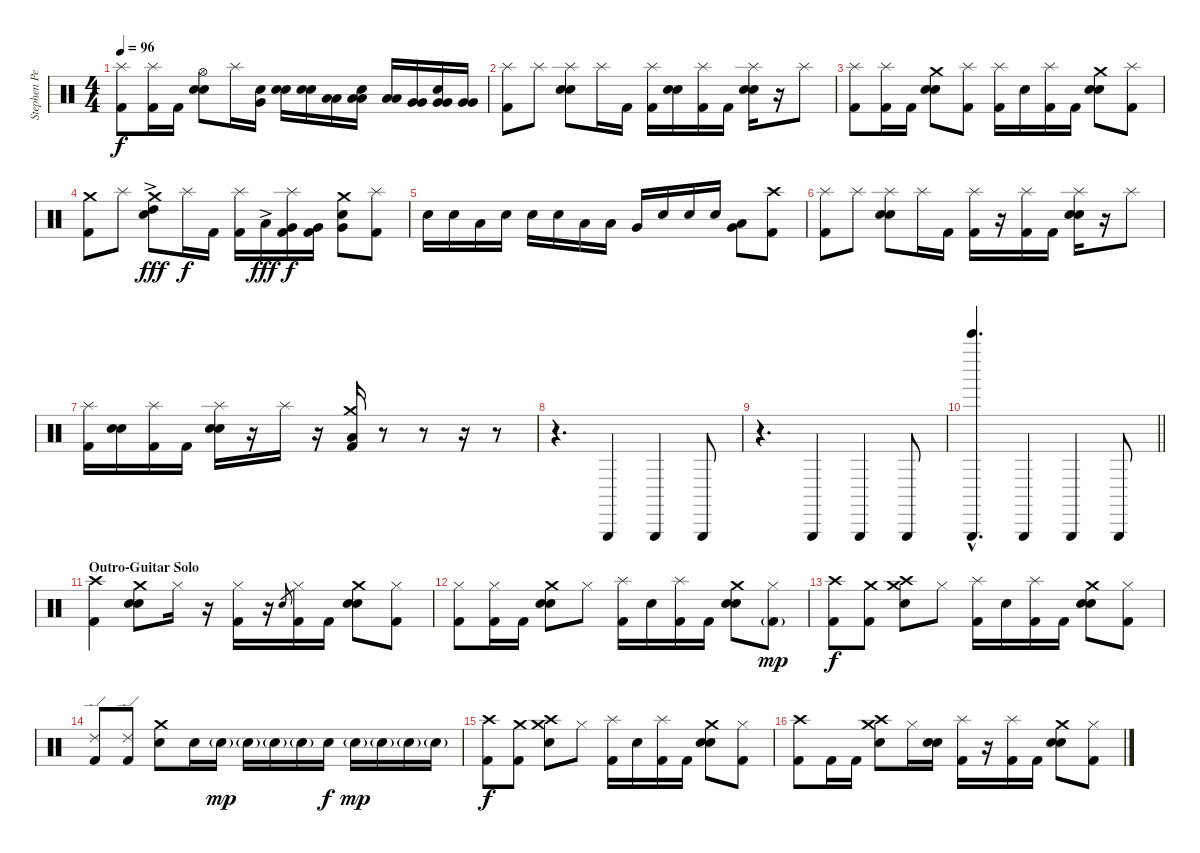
\track ("Stephen Perkins Drums" "Stephen Pe") {instrument percussion}
\staff {score}
\articulation defaults
\ts (4 4)
\tempo 96
\clef neutral
\ks c
("Splash (hit)" "Kick (hit) 2").8{dy f} ("Splash (hit)" "Kick (hit) 2").16 "Kick (hit) 2".16 ("Hi-Hat (open)" "Electric Snare (hit)" "Snare (hit) 2").8 "Splash (hit)".16 ("Electric Snare (hit)" "Very Low Tom (hit)").16 ("Snare (hit) 2" "Electric Snare (hit)").16 ("Snare (hit) 2" "Electric Snare (hit)").16 ("Low Tom (hit)" "Low Tom (hit)").16 ("Electric Snare (hit)" "Low Tom (hit)" "Low Tom (hit)").16 ("Low Tom (hit)" "Low Tom (hit)").16 ("Very Low Tom (hit)" "Very Low Tom (hit)").16 ("Electric Snare (hit)" "Very Low Tom (hit)" "Very Low Tom (hit)").16 ("Very Low Tom (hit)" "Very Low Tom (hit)").16 |
("Splash (hit)" "Kick (hit) 2").8 "Splash (hit)".8 ("Splash (hit)" "Snare (hit) 2" "Electric Snare (hit)").8 "Splash (hit)".16 "Kick (hit) 2".16 ("Splash (hit)" "Kick (hit) 2").16 ("Snare (hit) 2" "Electric Snare (hit)").16 ("Splash (hit)" "Kick (hit) 2").16 "Kick (hit) 2".16 ("Splash (hit)" "Snare (hit) 2" "Electric Snare (hit)").16 r.16 "Splash (hit)".8 |
("Splash (hit)" "Kick (hit) 2").8 ("Splash (hit)" "Kick (hit) 2").16 "Kick (hit) 2".16 ("Crash medium (hit)" "Snare (hit) 2" "Electric Snare (hit)").8 ("Splash (hit)" "Kick (hit) 2").8 ("Splash (hit)" "Kick (hit) 2").16 "Electric Snare (hit)".16 ("Splash (hit)" "Kick (hit) 2").16 "Kick (hit) 2".16 ("Crash medium (hit)" "Snare (hit) 2" "Electric Snare (hit)").8 ("Splash (hit)" "Kick (hit) 2").8 |
("Crash medium (hit)" "Kick (hit) 2").8 "Splash (hit)".8 ("Crash medium (hit)" "Electric Snare (hit)" "High Tom (hit)"{ac}).8{dy fff} "Splash (hit)".16{dy f} "Kick (hit) 2".16 ("Splash (hit)" "Kick (hit) 2").16 "Low Tom (hit)"{ac}.16{dy fff} ("Splash (hit)" "Very Low Tom (hit)" "Kick (hit) 2").16{dy f} ("Very Low Tom (hit)" "Kick (hit) 2").16 ("Crash medium (hit)" "Electric Snare (hit)" "Very Low Tom (hit)").8 ("Splash (hit)" "Kick (hit) 2").8 |
"Electric Snare (hit)".16 "Electric Snare (hit)".16 "Low Tom (hit)".16 "Electric Snare (hit)".16 "Electric Snare (hit)".16 "Electric Snare (hit)".16 "Low Tom (hit)".16 "Low Tom (hit)".16 "Very Low Tom (hit)".16 "Electric Snare (hit)".16 "Electric Snare (hit)".16 "Electric Snare (hit)".16 ("Very Low Tom (hit)" "Low Floor Tom (hit)").8 ("Crash high (hit)" "Kick (hit) 2").8 |
("Splash (hit)" "Kick (hit) 2").8 "Splash (hit)".8 ("Splash (hit)" "Snare (hit) 2" "Electric Snare (hit)").8 "Splash (hit)".16 "Kick (hit) 2".16 ("Splash (hit)" "Kick (hit) 2").16 r.16 ("Splash (hit)" "Kick (hit) 2").16 "Kick (hit) 2".16 ("Splash (hit)" "Snare (hit) 2" "Electric Snare (hit)").16 r.16 "Splash (hit)".8 |
("Splash (hit)" "Kick (hit) 2").16 ("Electric Snare (hit)" "Snare (hit) 2").16 ("Splash (hit)" "Kick (hit) 2").16 "Kick (hit) 2".16 ("Splash (hit)" "Electric Snare (hit)" "Snare (hit) 2").16 r.16 "Splash (hit)".16 r.16 ("Crash medium (hit)" "Low Floor Tom (hit)" "Kick (hit) 2").16 r.8 r.8 r.16 r.8 |
r.4{d} "Triangle (hit)".4 "Triangle (hit)".4 "Triangle (hit)".8 |
r.4{d} "Triangle (hit)".4 "Triangle (hit)".4 "Triangle (hit)".8 |
\barLineRight lightlight
("Bell Tree (hit)"{hac} "Triangle (hit)"{hac}).4{d} "Triangle (hit)".4 "Triangle (hit)".4 "Triangle (hit)".8 |
\section ("" "Outro-Guitar Solo")
("Crash high (hit)" "Kick (hit) 2").4 ("Crash medium (hit)" "Electric Snare (hit)" "Snare (hit) 2").8 "Hi-Hat (closed)".16 r.16 ("Hi-Hat (closed)" "Kick (hit) 2").16 r.16 "Electric Snare (hit)".8{gr} ("Hi-Hat (closed)" "Kick (hit) 2").16 "Kick (hit) 2".16 ("Crash medium (hit)" "Electric Snare (hit)" "Snare (hit) 2").8 ("Hi-Hat (closed)" "Kick (hit) 2").8 |
("Hi-Hat (closed)" "Kick (hit) 2").8 ("Hi-Hat (closed)" "Kick (hit) 2").16 "Kick (hit) 2".16 ("Crash medium (hit)" "Snare (hit) 2" "Electric Snare (hit)").8 "Hi-Hat (closed)".8 ("Splash (hit)" "Kick (hit) 2").16 "Electric Snare (hit)".16 ("Splash (hit)" "Kick (hit) 2").16 "Kick (hit) 2".16 ("Crash medium (hit)" "Electric Snare (hit)" "Snare (hit) 2").8 ("Hi-Hat (closed)" "Kick (hit) 2"{g}).8{dy mp} |
("Crash high (hit)" "Kick (hit) 2").8{dy f} ("Crash medium (hit)" "Kick (hit) 2").8 ("Crash high (hit)" "Crash medium (hit)" "Electric Snare (hit)").8 "Hi-Hat (closed)".8 ("Splash (hit)" "Kick (hit) 2").16 "Electric Snare (hit)".16 ("Splash (hit)" "Kick (hit) 2").16 "Kick (hit) 2".16 ("Crash medium (hit)" "Snare (hit) 2" "Electric Snare (hit)").8 ("Hi-Hat (closed)" "Kick (hit) 2").8 |
("Ride (edge) 2" "Kick (hit) 2").8 ("Ride (edge) 2" "Kick (hit) 2").8 ("Crash medium (hit)" "Electric Snare (hit)").8 "Electric Snare (hit)".16 "Electric Snare (hit)"{g}.16{dy mp} "Electric Snare (hit)"{g}.16 "Electric Snare (hit)"{g}.16 "Electric Snare (hit)"{g}.16 "Electric Snare (hit)".16{dy f} "Electric Snare (hit)"{g}.16{dy mp} "Electric Snare (hit)"{g}.16 "Electric Snare (hit)"{g}.16 "Electric Snare (hit)"{g}.16 |
("Crash high (hit)" "Kick (hit) 2").8{dy f} ("Crash medium (hit)" "Kick (hit) 2").8 ("Crash high (hit)" "Crash medium (hit)" "Electric Snare (hit)").8 "Hi-Hat (closed)".8 ("Splash (hit)" "Kick (hit) 2").16 "Electric Snare (hit)".16 ("Splash (hit)" "Kick (hit) 2").16 "Kick (hit) 2".16 ("Crash medium (hit)" "Snare (hit) 2" "Electric Snare (hit)").8 ("Hi-Hat (closed)" "Kick (hit) 2").8 |
("Crash high (hit)" "Kick (hit) 2").8 "Kick (hit) 2".16 "Kick (hit) 2".16 ("Crash high (hit)" "Crash medium (hit)" "Electric Snare (hit)").8 "Hi-Hat (closed)".16 ("Electric Snare (hit)" "Electric Snare (hit)").16 ("Splash (hit)" "Kick (hit) 2").16 r.16 ("Splash (hit)" "Kick (hit) 2").16 "Kick (hit) 2".16 ("Crash medium (hit)" "Snare (hit) 2" "Electric Snare (hit)").8 ("Hi-Hat (closed)" "Kick (hit) 2").8
